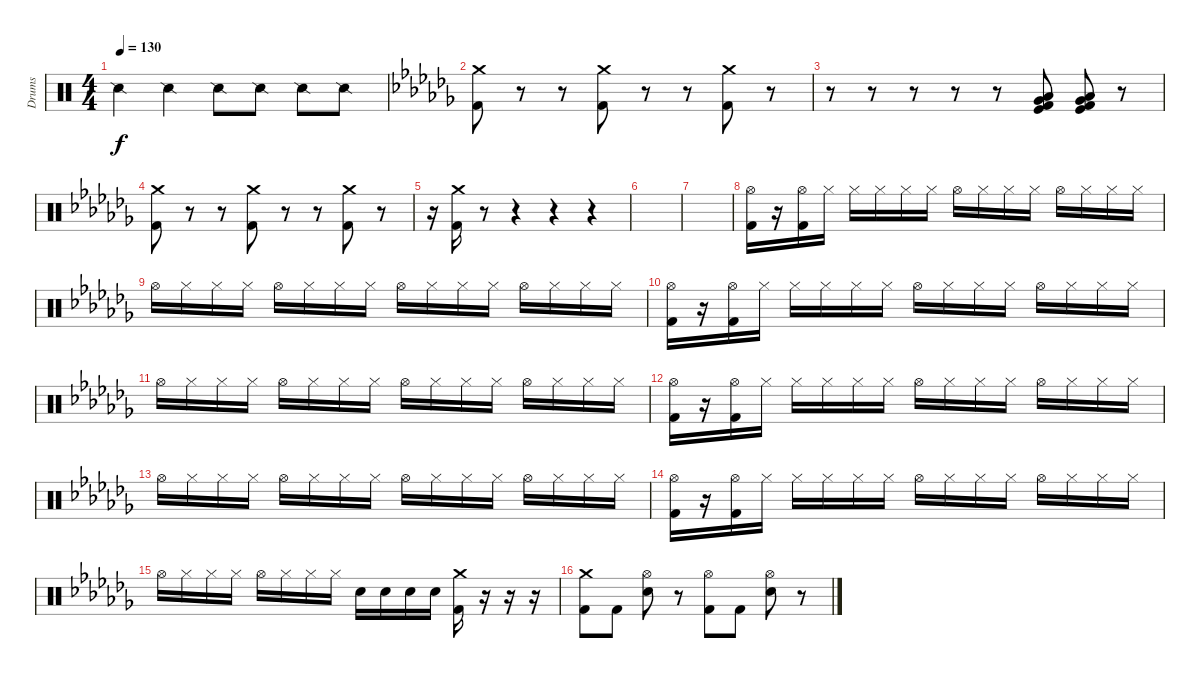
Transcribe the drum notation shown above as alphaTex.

\track ("Drums" "Drums") {instrument percussion}
\staff {score}
\articulation defaults
\ts (4 4)
\tempo 130
\clef neutral
\ks c "Snare (side stick) 2".4{dy f} "Snare (side stick) 2".4 "Snare (side stick) 2".8 "Snare (side stick) 2".8 "Snare (side stick) 2".8 "Snare (side stick) 2".8
|
\ks cb
("Crash medium (hit)" "Kick (hit) 2").8 r.8 r.8 ("Crash medium (hit)" "Kick (hit) 2").8 r.8 r.8 ("Crash medium (hit)" "Kick (hit) 2").8 r.8 |
r.8 r.8 r.8 r.8 r.8 ("Low Tom (hit)" "Very Low Tom (hit)" "Kick (hit)" "Kick (hit) 2").8 ("Low Tom (hit)" "Very Low Tom (hit)" "Kick (hit)" "Kick (hit) 2").8 r.8 |
("Crash medium (hit)" "Kick (hit) 2").8 r.8 r.8 ("Crash medium (hit)" "Kick (hit) 2").8 r.8 r.8 ("Crash medium (hit)" "Kick (hit) 2").8 r.8 |
r.16 ("Crash medium (hit)" "Kick (hit) 2").16 r.8 r.4 r.4 r.4 |
|
|
("Hi-Hat (open)" "Kick (hit) 2").16 r.16 ("Hi-Hat (open)" "Kick (hit) 2").16 "Hi-Hat (closed)".16 "Hi-Hat (closed)".16 "Hi-Hat (closed)".16 "Hi-Hat (closed)".16 "Hi-Hat (closed)".16 "Hi-Hat (open)".16 "Hi-Hat (closed)".16 "Hi-Hat (closed)".16 "Hi-Hat (closed)".16 "Hi-Hat (open)".16 "Hi-Hat (closed)".16 "Hi-Hat (closed)".16 "Hi-Hat (closed)".16 |
"Hi-Hat (open)".16 "Hi-Hat (closed)".16 "Hi-Hat (closed)".16 "Hi-Hat (closed)".16 "Hi-Hat (open)".16 "Hi-Hat (closed)".16 "Hi-Hat (closed)".16 "Hi-Hat (closed)".16 "Hi-Hat (open)".16 "Hi-Hat (closed)".16 "Hi-Hat (closed)".16 "Hi-Hat (closed)".16 "Hi-Hat (open)".16 "Hi-Hat (closed)".16 "Hi-Hat (closed)".16 "Hi-Hat (closed)".16 |
("Hi-Hat (open)" "Kick (hit) 2").16 r.16 ("Hi-Hat (open)" "Kick (hit) 2").16 "Hi-Hat (closed)".16 "Hi-Hat (closed)".16 "Hi-Hat (closed)".16 "Hi-Hat (closed)".16 "Hi-Hat (closed)".16 "Hi-Hat (open)".16 "Hi-Hat (closed)".16 "Hi-Hat (closed)".16 "Hi-Hat (closed)".16 "Hi-Hat (open)".16 "Hi-Hat (closed)".16 "Hi-Hat (closed)".16 "Hi-Hat (closed)".16 |
"Hi-Hat (open)".16 "Hi-Hat (closed)".16 "Hi-Hat (closed)".16 "Hi-Hat (closed)".16 "Hi-Hat (open)".16 "Hi-Hat (closed)".16 "Hi-Hat (closed)".16 "Hi-Hat (closed)".16 "Hi-Hat (open)".16 "Hi-Hat (closed)".16 "Hi-Hat (closed)".16 "Hi-Hat (closed)".16 "Hi-Hat (open)".16 "Hi-Hat (closed)".16 "Hi-Hat (closed)".16 "Hi-Hat (closed)".16 |
("Hi-Hat (open)" "Kick (hit) 2").16 r.16 ("Hi-Hat (open)" "Kick (hit) 2").16 "Hi-Hat (closed)".16 "Hi-Hat (closed)".16 "Hi-Hat (closed)".16 "Hi-Hat (closed)".16 "Hi-Hat (closed)".16 "Hi-Hat (open)".16 "Hi-Hat (closed)".16 "Hi-Hat (closed)".16 "Hi-Hat (closed)".16 "Hi-Hat (open)".16 "Hi-Hat (closed)".16 "Hi-Hat (closed)".16 "Hi-Hat (closed)".16 |
"Hi-Hat (open)".16 "Hi-Hat (closed)".16 "Hi-Hat (closed)".16 "Hi-Hat (closed)".16 "Hi-Hat (open)".16 "Hi-Hat (closed)".16 "Hi-Hat (closed)".16 "Hi-Hat (closed)".16 "Hi-Hat (open)".16 "Hi-Hat (closed)".16 "Hi-Hat (closed)".16 "Hi-Hat (closed)".16 "Hi-Hat (open)".16 "Hi-Hat (closed)".16 "Hi-Hat (closed)".16 "Hi-Hat (closed)".16 |
("Hi-Hat (open)" "Kick (hit) 2").16 r.16 ("Hi-Hat (open)" "Kick (hit) 2").16 "Hi-Hat (closed)".16 "Hi-Hat (closed)".16 "Hi-Hat (closed)".16 "Hi-Hat (closed)".16 "Hi-Hat (closed)".16 "Hi-Hat (open)".16 "Hi-Hat (closed)".16 "Hi-Hat (closed)".16 "Hi-Hat (closed)".16 "Hi-Hat (open)".16 "Hi-Hat (closed)".16 "Hi-Hat (closed)".16 "Hi-Hat (closed)".16 |
"Hi-Hat (open)".16 "Hi-Hat (closed)".16 "Hi-Hat (closed)".16 "Hi-Hat (closed)".16 "Hi-Hat (open)".16 "Hi-Hat (closed)".16 "Hi-Hat (closed)".16 "Hi-Hat (closed)".16 "Snare (hit) 2".16 "Snare (hit) 2".16 "Snare (hit) 2".16 "Snare (hit) 2".16 ("Crash medium (hit)" "Kick (hit) 2").16 r.16 r.16 r.16 |
("Crash medium (hit)" "Kick (hit) 2").8 "Kick (hit) 2".8 ("Hi-Hat (open)" "Snare (hit) 2").8 r.8 ("Hi-Hat (open)" "Kick (hit) 2").8 "Kick (hit) 2".8 ("Hi-Hat (open)" "Snare (hit) 2").8 r.8
